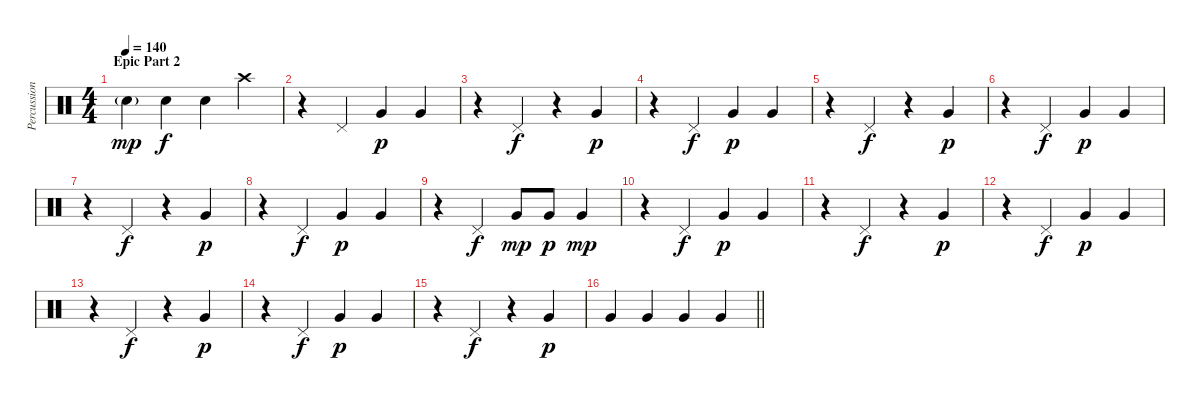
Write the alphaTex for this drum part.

\track ("Percussions" "Percussion") {instrument percussion}
\staff {score}
\articulation defaults
\ts (4 4)
\section ("" "Epic Part 2")
\tempo 140
\clef neutral
\ks c "Electric Snare (hit)"{g}.4{dy mp} "Electric Snare (hit)".4{dy f} "Electric Snare (hit)".4 "Crash high (hit)".4
|
r.4 "Pedal Hi-Hat (hit)".4 "Very Low Tom (hit)".4{dy p} "Very Low Tom (hit)".4 |
r.4 "Pedal Hi-Hat (hit)".4{dy f} r.4 "Very Low Tom (hit)".4{dy p} |
r.4 "Pedal Hi-Hat (hit)".4{dy f} "Very Low Tom (hit)".4{dy p} "Very Low Tom (hit)".4 |
r.4 "Pedal Hi-Hat (hit)".4{dy f} r.4 "Very Low Tom (hit)".4{dy p} |
r.4 "Pedal Hi-Hat (hit)".4{dy f} "Very Low Tom (hit)".4{dy p} "Very Low Tom (hit)".4 |
r.4 "Pedal Hi-Hat (hit)".4{dy f} r.4 "Very Low Tom (hit)".4{dy p} |
r.4 "Pedal Hi-Hat (hit)".4{dy f} "Very Low Tom (hit)".4{dy p} "Very Low Tom (hit)".4 |
r.4 "Pedal Hi-Hat (hit)".4{dy f} "Very Low Tom (hit)".8{dy mp} "Very Low Tom (hit)".8{dy p} "Very Low Tom (hit)".4{dy mp} |
r.4 "Pedal Hi-Hat (hit)".4{dy f} "Very Low Tom (hit)".4{dy p} "Very Low Tom (hit)".4 |
r.4 "Pedal Hi-Hat (hit)".4{dy f} r.4 "Very Low Tom (hit)".4{dy p} |
r.4 "Pedal Hi-Hat (hit)".4{dy f} "Very Low Tom (hit)".4{dy p} "Very Low Tom (hit)".4 |
r.4 "Pedal Hi-Hat (hit)".4{dy f} r.4 "Very Low Tom (hit)".4{dy p} |
r.4 "Pedal Hi-Hat (hit)".4{dy f} "Very Low Tom (hit)".4{dy p} "Very Low Tom (hit)".4 |
r.4 "Pedal Hi-Hat (hit)".4{dy f} r.4 "Very Low Tom (hit)".4{dy p} |
\barLineRight lightlight "Very Low Tom (hit)".4 "Very Low Tom (hit)".4 "Very Low Tom (hit)".4 "Very Low Tom (hit)".4
